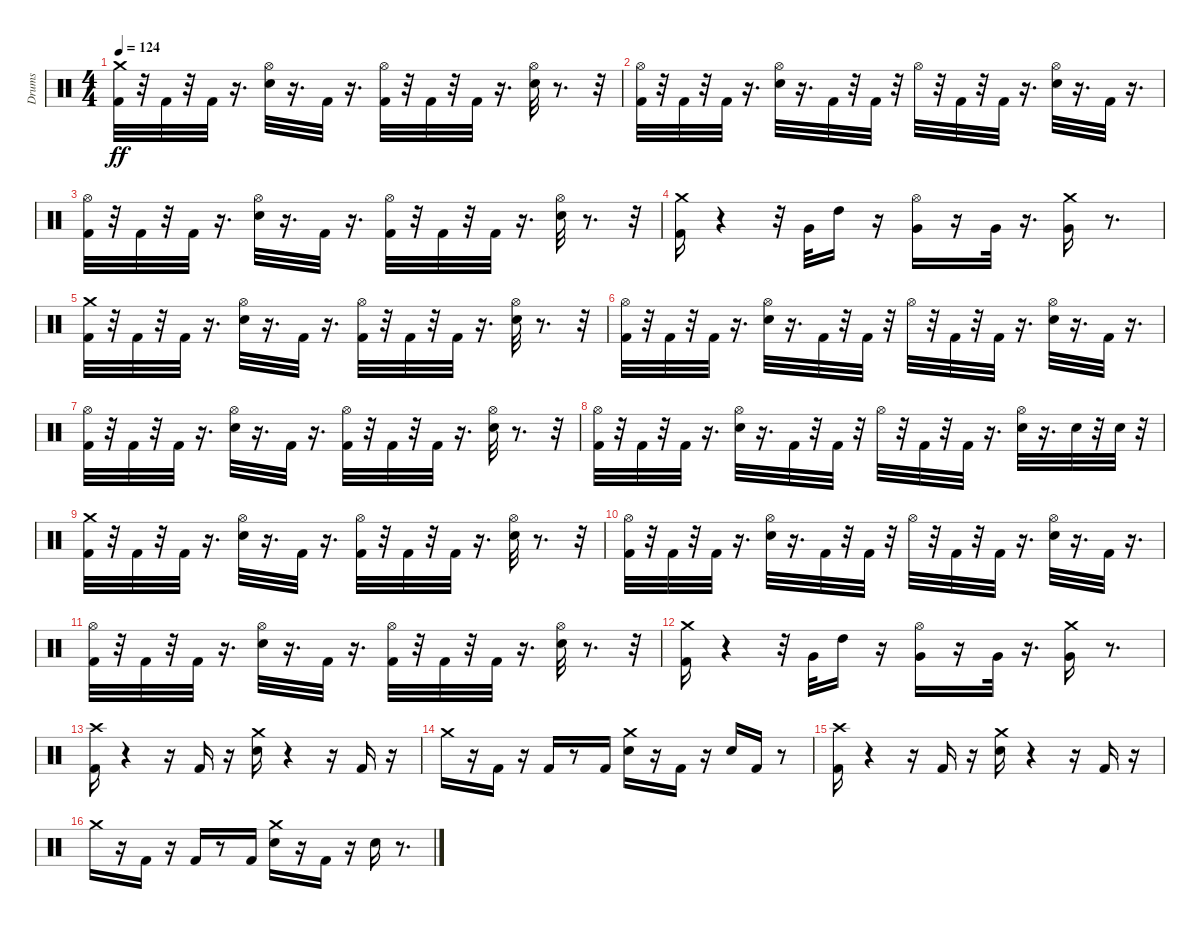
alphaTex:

\track ("Drums" "Drums") {instrument percussion}
\staff {score}
\articulation defaults
\ts (4 4)
\tempo 124
\clef neutral
\ks c
("Crash medium (hit)" "Kick (hit) 2").32{dy ff} r.32 "Kick (hit) 2".32 r.32 "Kick (hit) 2".32 r.16{d} ("Hi-Hat (open)" "Electric Snare (hit)").32 r.16{d} "Kick (hit) 2".32 r.16{d} ("Kick (hit) 2" "Hi-Hat (open)").32 r.32 "Kick (hit) 2".32 r.32 "Kick (hit) 2".32 r.16{d} ("Hi-Hat (open)" "Electric Snare (hit)").32 r.8{d} r.32 |
("Kick (hit) 2" "Hi-Hat (open)").32 r.32 "Kick (hit) 2".32 r.32 "Kick (hit) 2".32 r.16{d} ("Electric Snare (hit)" "Hi-Hat (open)").32 r.16{d} "Kick (hit) 2".32 r.32 "Kick (hit) 2".32 r.32 "Hi-Hat (open)".32 r.32 "Kick (hit) 2".32 r.32 "Kick (hit) 2".32 r.16{d} ("Electric Snare (hit)" "Hi-Hat (open)").32 r.16{d} "Kick (hit) 2".32 r.16{d} |
("Hi-Hat (open)" "Kick (hit) 2").32 r.32 "Kick (hit) 2".32 r.32 "Kick (hit) 2".32 r.16{d} ("Hi-Hat (open)" "Electric Snare (hit)").32 r.16{d} "Kick (hit) 2".32 r.16{d} ("Hi-Hat (open)" "Kick (hit) 2").32 r.32 "Kick (hit) 2".32 r.32 "Kick (hit) 2".32 r.16{d} ("Hi-Hat (open)" "Electric Snare (hit)").32 r.8{d} r.32 |
("Kick (hit) 2" "Crash medium (hit)").16 r.4 r.32 "Very Low Tom (hit)".32 "High Tom (hit)".16 r.16 ("Hi-Hat (open)" "Very Low Tom (hit)").16 r.16 "Very Low Tom (hit)".32 r.16{d} ("Crash medium (hit)" "Very Low Tom (hit)").16 r.8{d} |
("Kick (hit) 2" "Crash medium (hit)").32 r.32 "Kick (hit) 2".32 r.32 "Kick (hit) 2".32 r.16{d} ("Electric Snare (hit)" "Hi-Hat (open)").32 r.16{d} "Kick (hit) 2".32 r.16{d} ("Hi-Hat (open)" "Kick (hit) 2").32 r.32 "Kick (hit) 2".32 r.32 "Kick (hit) 2".32 r.16{d} ("Electric Snare (hit)" "Hi-Hat (open)").32 r.8{d} r.32 |
("Hi-Hat (open)" "Kick (hit) 2").32 r.32 "Kick (hit) 2".32 r.32 "Kick (hit) 2".32 r.16{d} ("Hi-Hat (open)" "Electric Snare (hit)").32 r.16{d} "Kick (hit) 2".32 r.32 "Kick (hit) 2".32 r.32 "Hi-Hat (open)".32 r.32 "Kick (hit) 2".32 r.32 "Kick (hit) 2".32 r.16{d} ("Hi-Hat (open)" "Electric Snare (hit)").32 r.16{d} "Kick (hit) 2".32 r.16{d} |
("Kick (hit) 2" "Hi-Hat (open)").32 r.32 "Kick (hit) 2".32 r.32 "Kick (hit) 2".32 r.16{d} ("Electric Snare (hit)" "Hi-Hat (open)").32 r.16{d} "Kick (hit) 2".32 r.16{d} ("Kick (hit) 2" "Hi-Hat (open)").32 r.32 "Kick (hit) 2".32 r.32 "Kick (hit) 2".32 r.16{d} ("Electric Snare (hit)" "Hi-Hat (open)").32 r.8{d} r.32 |
("Hi-Hat (open)" "Kick (hit) 2").32 r.32 "Kick (hit) 2".32 r.32 "Kick (hit) 2".32 r.16{d} ("Hi-Hat (open)" "Electric Snare (hit)").32 r.16{d} "Kick (hit) 2".32 r.32 "Kick (hit) 2".32 r.32 "Hi-Hat (open)".32 r.32 "Kick (hit) 2".32 r.32 "Kick (hit) 2".32 r.16{d} ("Electric Snare (hit)" "Hi-Hat (open)").32 r.16{d} "Electric Snare (hit)".32 r.32 "Electric Snare (hit)".32 r.32 |
("Kick (hit) 2" "Crash medium (hit)").32 r.32 "Kick (hit) 2".32 r.32 "Kick (hit) 2".32 r.16{d} ("Electric Snare (hit)" "Hi-Hat (open)").32 r.16{d} "Kick (hit) 2".32 r.16{d} ("Hi-Hat (open)" "Kick (hit) 2").32 r.32 "Kick (hit) 2".32 r.32 "Kick (hit) 2".32 r.16{d} ("Electric Snare (hit)" "Hi-Hat (open)").32 r.8{d} r.32 |
("Hi-Hat (open)" "Kick (hit) 2").32 r.32 "Kick (hit) 2".32 r.32 "Kick (hit) 2".32 r.16{d} ("Hi-Hat (open)" "Electric Snare (hit)").32 r.16{d} "Kick (hit) 2".32 r.32 "Kick (hit) 2".32 r.32 "Hi-Hat (open)".32 r.32 "Kick (hit) 2".32 r.32 "Kick (hit) 2".32 r.16{d} ("Hi-Hat (open)" "Electric Snare (hit)").32 r.16{d} "Kick (hit) 2".32 r.16{d} |
("Kick (hit) 2" "Hi-Hat (open)").32 r.32 "Kick (hit) 2".32 r.32 "Kick (hit) 2".32 r.16{d} ("Electric Snare (hit)" "Hi-Hat (open)").32 r.16{d} "Kick (hit) 2".32 r.16{d} ("Kick (hit) 2" "Hi-Hat (open)").32 r.32 "Kick (hit) 2".32 r.32 "Kick (hit) 2".32 r.16{d} ("Electric Snare (hit)" "Hi-Hat (open)").32 r.8{d} r.32 |
("Crash medium (hit)" "Kick (hit) 2").16 r.4 r.32 "Very Low Tom (hit)".32 "High Tom (hit)".16 r.16 ("Very Low Tom (hit)" "Hi-Hat (open)").16 r.16 "Very Low Tom (hit)".32 r.16{d} ("Very Low Tom (hit)" "Crash medium (hit)").16 r.8{d} |
("Crash high (hit)" "Kick (hit) 2").16 r.4 r.16 "Kick (hit) 2".16 r.16 ("Crash medium (hit)" "Electric Snare (hit)").16 r.4 r.16 "Kick (hit) 2".16 r.16 |
"Crash medium (hit)".16 r.16 "Kick (hit) 2".16 r.16 "Kick (hit) 2".16 r.8 "Kick (hit) 2".16 ("Crash medium (hit)" "Electric Snare (hit)").16 r.16 "Kick (hit) 2".16 r.16 "Electric Snare (hit)".16 "Kick (hit) 2".16 r.8 |
("Kick (hit) 2" "Crash high (hit)").16 r.4 r.16 "Kick (hit) 2".16 r.16 ("Crash medium (hit)" "Electric Snare (hit)").16 r.4 r.16 "Kick (hit) 2".16 r.16 |
"Crash medium (hit)".16 r.16 "Kick (hit) 2".16 r.16 "Kick (hit) 2".16 r.8 "Kick (hit) 2".16 ("Crash medium (hit)" "Electric Snare (hit)").16 r.16 "Kick (hit) 2".16 r.16 "Electric Snare (hit)".16 r.8{d}
